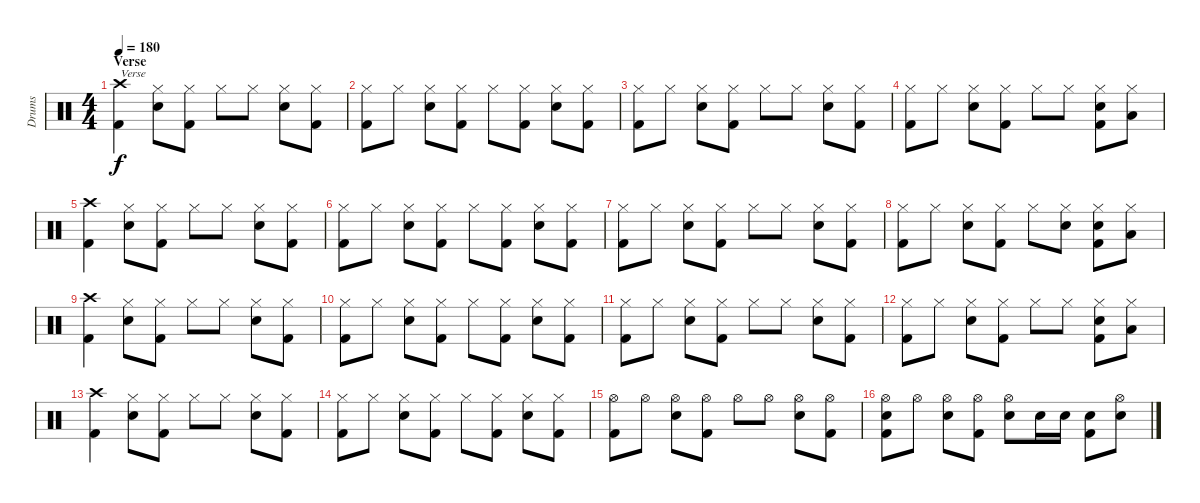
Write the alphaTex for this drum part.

\track ("Drums" "Drums") {instrument percussion}
\staff {score}
\articulation defaults
\ts (4 4)
\section ("" "Verse")
\tempo 180
\clef neutral
\ks c
("Crash high (hit)" "Kick (hit) 2").4{txt "Verse" dy f} ("Hi-Hat (closed)" "Electric Snare (hit)").8 ("Hi-Hat (closed)" "Kick (hit) 2").8 "Hi-Hat (closed)".8 "Hi-Hat (closed)".8 ("Hi-Hat (closed)" "Electric Snare (hit)").8 ("Hi-Hat (closed)" "Kick (hit) 2").8 |
("Hi-Hat (closed)" "Kick (hit) 2").8 "Hi-Hat (closed)".8 ("Hi-Hat (closed)" "Electric Snare (hit)").8 ("Hi-Hat (closed)" "Kick (hit) 2").8 "Hi-Hat (closed)".8 ("Hi-Hat (closed)" "Kick (hit) 2").8 ("Hi-Hat (closed)" "Electric Snare (hit)").8 ("Hi-Hat (closed)" "Kick (hit) 2").8 |
("Hi-Hat (closed)" "Kick (hit) 2").8 "Hi-Hat (closed)".8 ("Hi-Hat (closed)" "Electric Snare (hit)").8 ("Hi-Hat (closed)" "Kick (hit) 2").8 "Hi-Hat (closed)".8 "Hi-Hat (closed)".8 ("Hi-Hat (closed)" "Electric Snare (hit)").8 ("Hi-Hat (closed)" "Kick (hit) 2").8 |
("Hi-Hat (closed)" "Kick (hit) 2").8 "Hi-Hat (closed)".8 ("Hi-Hat (closed)" "Electric Snare (hit)").8 ("Hi-Hat (closed)" "Kick (hit) 2").8 "Hi-Hat (closed)".8 "Hi-Hat (closed)".8 ("Hi-Hat (closed)" "Electric Snare (hit)" "Kick (hit) 2").8 ("Hi-Hat (closed)" "Low Floor Tom (hit)").8 |
("Crash high (hit)" "Kick (hit) 2").4 ("Hi-Hat (closed)" "Electric Snare (hit)").8 ("Hi-Hat (closed)" "Kick (hit) 2").8 "Hi-Hat (closed)".8 "Hi-Hat (closed)".8 ("Hi-Hat (closed)" "Electric Snare (hit)").8 ("Hi-Hat (closed)" "Kick (hit) 2").8 |
("Hi-Hat (closed)" "Kick (hit) 2").8 "Hi-Hat (closed)".8 ("Hi-Hat (closed)" "Electric Snare (hit)").8 ("Hi-Hat (closed)" "Kick (hit) 2").8 "Hi-Hat (closed)".8 ("Hi-Hat (closed)" "Kick (hit) 2").8 ("Hi-Hat (closed)" "Electric Snare (hit)").8 ("Hi-Hat (closed)" "Kick (hit) 2").8 |
("Hi-Hat (closed)" "Kick (hit) 2").8 "Hi-Hat (closed)".8 ("Hi-Hat (closed)" "Electric Snare (hit)").8 ("Hi-Hat (closed)" "Kick (hit) 2").8 "Hi-Hat (closed)".8 "Hi-Hat (closed)".8 ("Hi-Hat (closed)" "Electric Snare (hit)").8 ("Hi-Hat (closed)" "Kick (hit) 2").8 |
("Hi-Hat (closed)" "Kick (hit) 2").8 "Hi-Hat (closed)".8 ("Hi-Hat (closed)" "Electric Snare (hit)").8 ("Hi-Hat (closed)" "Kick (hit) 2").8 "Hi-Hat (closed)".8 ("Hi-Hat (closed)" "Electric Snare (hit)").8 ("Hi-Hat (closed)" "Electric Snare (hit)" "Kick (hit) 2").8 ("Hi-Hat (closed)" "Low Floor Tom (hit)").8 |
("Crash high (hit)" "Kick (hit) 2").4 ("Hi-Hat (closed)" "Electric Snare (hit)").8 ("Hi-Hat (closed)" "Kick (hit) 2").8 "Hi-Hat (closed)".8 "Hi-Hat (closed)".8 ("Hi-Hat (closed)" "Electric Snare (hit)").8 ("Hi-Hat (closed)" "Kick (hit) 2").8 |
("Hi-Hat (closed)" "Kick (hit) 2").8 "Hi-Hat (closed)".8 ("Hi-Hat (closed)" "Electric Snare (hit)").8 ("Hi-Hat (closed)" "Kick (hit) 2").8 "Hi-Hat (closed)".8 ("Hi-Hat (closed)" "Kick (hit) 2").8 ("Hi-Hat (closed)" "Electric Snare (hit)").8 ("Hi-Hat (closed)" "Kick (hit) 2").8 |
("Hi-Hat (closed)" "Kick (hit) 2").8 "Hi-Hat (closed)".8 ("Hi-Hat (closed)" "Electric Snare (hit)").8 ("Hi-Hat (closed)" "Kick (hit) 2").8 "Hi-Hat (closed)".8 "Hi-Hat (closed)".8 ("Hi-Hat (closed)" "Electric Snare (hit)").8 ("Hi-Hat (closed)" "Kick (hit) 2").8 |
("Hi-Hat (closed)" "Kick (hit) 2").8 "Hi-Hat (closed)".8 ("Hi-Hat (closed)" "Electric Snare (hit)").8 ("Hi-Hat (closed)" "Kick (hit) 2").8 "Hi-Hat (closed)".8 "Hi-Hat (closed)".8 ("Hi-Hat (closed)" "Electric Snare (hit)" "Kick (hit) 2").8 ("Hi-Hat (closed)" "Low Floor Tom (hit)").8 |
("Crash high (hit)" "Kick (hit) 2").4 ("Hi-Hat (closed)" "Electric Snare (hit)").8 ("Hi-Hat (closed)" "Kick (hit) 2").8 "Hi-Hat (closed)".8 "Hi-Hat (closed)".8 ("Hi-Hat (closed)" "Electric Snare (hit)").8 ("Hi-Hat (closed)" "Kick (hit) 2").8 |
("Hi-Hat (closed)" "Kick (hit) 2").8 "Hi-Hat (closed)".8 ("Hi-Hat (closed)" "Electric Snare (hit)").8 ("Hi-Hat (closed)" "Kick (hit) 2").8 "Hi-Hat (closed)".8 ("Hi-Hat (closed)" "Kick (hit) 2").8 ("Hi-Hat (closed)" "Electric Snare (hit)").8 ("Hi-Hat (closed)" "Kick (hit) 2").8 |
("Hi-Hat (open)" "Kick (hit) 2").8 "Hi-Hat (open)".8 ("Hi-Hat (open)" "Electric Snare (hit)").8 ("Hi-Hat (open)" "Kick (hit) 2").8 "Hi-Hat (open)".8 "Hi-Hat (open)".8 ("Hi-Hat (open)" "Electric Snare (hit)").8 ("Hi-Hat (open)" "Kick (hit) 2").8 |
("Hi-Hat (open)" "Electric Snare (hit)" "Kick (hit) 2").8 "Hi-Hat (open)".8 ("Hi-Hat (open)" "Electric Snare (hit)").8 ("Hi-Hat (open)" "Kick (hit) 2").8 ("Hi-Hat (open)" "Electric Snare (hit)").8 "Electric Snare (hit)".16 "Electric Snare (hit)".16 ("Electric Snare (hit)" "Kick (hit) 2").8 ("Hi-Hat (open)" "Electric Snare (hit)").8
